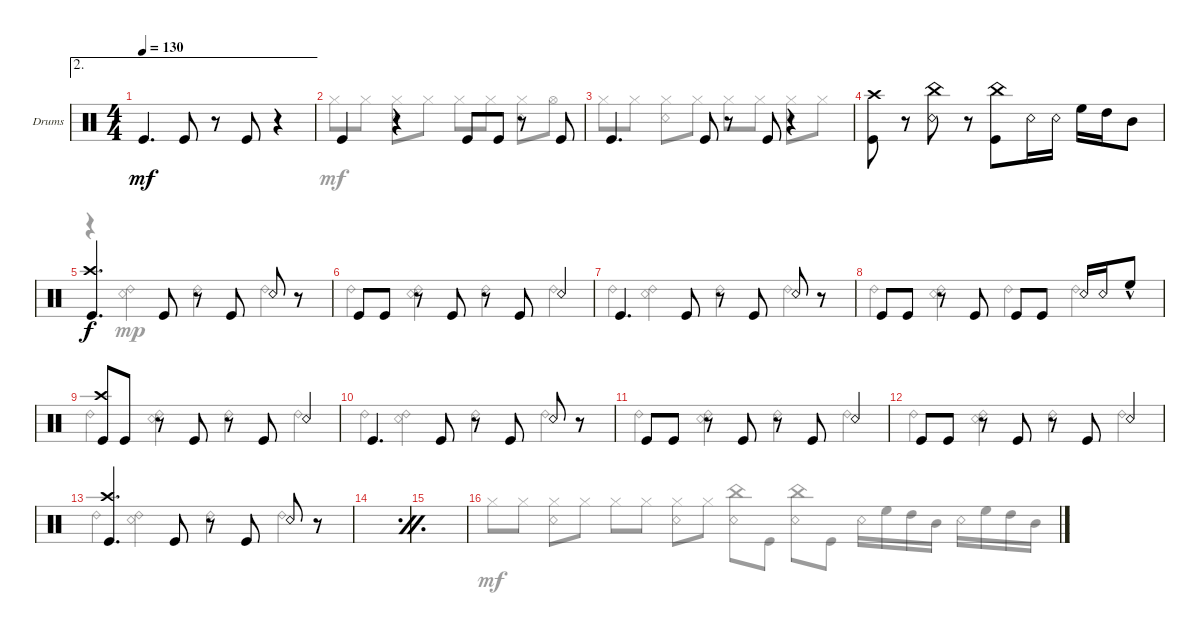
\defaultSystemsLayout 4
\bracketExtendMode groupsimilarinstruments
\firstSystemTrackNameOrientation horizontal
\otherSystemsTrackNameOrientation horizontal
\track ("Drumkit" "Drums") {instrument percussion}
\staff {score}
\articulation defaults
\voice
\ae 2
\ts (4 4)
\tempo 130
\clef neutral
\ks c "Kick (hit)".4{d dy mf} "Kick (hit)".8
r.8 "Kick (hit)".8 r.4 |
"Kick (hit)".4 r.4 "Kick (hit)".8 "Kick (hit)".8 r.8 "Kick (hit)".8 |
"Kick (hit)".4{d} "Kick (hit)".8 r.8 "Kick (hit)".8 r.4 |
("Kick (hit)" "Crash high (hit)").8 r.8 ("Snare (rim shot)" "China (hit)").8 r.8 ("Kick (hit)" "China (hit)").8 "Snare (rim shot)".16 "Snare (rim shot)".16 "High Floor Tom (hit)".16 "High Tom (hit)".16 "Mid Tom (hit)".8 |
("Kick (hit)" "Crash high (hit)").4{d dy f} "Kick (hit)".8 r.8 "Kick (hit)".8 "Snare (rim shot)".8 r.8 |
"Kick (hit)".8 "Kick (hit)".8 r.8 "Kick (hit)".8 r.8 "Kick (hit)".8 "Snare (rim shot)".4 |
"Kick (hit)".4{d} "Kick (hit)".8 r.8 "Kick (hit)".8 "Snare (rim shot)".8 r.8 |
"Kick (hit)".8 "Kick (hit)".8 r.8 "Kick (hit)".8 "Kick (hit)".8 "Kick (hit)".8 "Snare (rim shot)".16 "Snare (rim shot)".16 "High Floor Tom (hit)"{hac}.8 |
("Kick (hit)" "Crash high (hit)").8 "Kick (hit)".8 r.8 "Kick (hit)".8 r.8 "Kick (hit)".8 "Snare (rim shot)".4 |
"Kick (hit)".4{d} "Kick (hit)".8 r.8 "Kick (hit)".8 "Snare (rim shot)".8 r.8 |
"Kick (hit)".8 "Kick (hit)".8 r.8 "Kick (hit)".8 r.8 "Kick (hit)".8 "Snare (rim shot)".4 |
"Kick (hit)".8 "Kick (hit)".8 r.8 "Kick (hit)".8 r.8 "Kick (hit)".8 "Snare (rim shot)".4 |
("Kick (hit)" "Crash high (hit)").4{d} "Kick (hit)".8 r.8 "Kick (hit)".8 "Snare (rim shot)".8 r.8 |
\simile firstofdouble
|
\simile secondofdouble
|
\simile none
\voice
\clef neutral
\ottava regular
\simile none
\ks c "Hi-Hat (closed)".8{dy mf} "Hi-Hat (closed)".8
("Hi-Hat (closed)" "Snare (rim shot)").8 "Hi-Hat (closed)".8 "Hi-Hat (closed)".8 "Hi-Hat (closed)".8 ("Hi-Hat (closed)" "Snare (rim shot)").8 "Hi-Hat (closed)".8 |
"Hi-Hat (closed)".8 "Hi-Hat (closed)".8 ("Hi-Hat (closed)" "Snare (rim shot)").8 "Hi-Hat (closed)".8 "Hi-Hat (closed)".8 "Hi-Hat (closed)".8 ("Hi-Hat (closed)" "Snare (rim shot)").8 "Hi-Hat (open)".8 |
"Hi-Hat (closed)".8 "Hi-Hat (closed)".8 ("Hi-Hat (closed)" "Snare (rim shot)").8 "Hi-Hat (closed)".8 "Hi-Hat (closed)".8 "Hi-Hat (closed)".8 ("Hi-Hat (closed)" "Snare (rim shot)").8 "Hi-Hat (closed)".8 |
|
r.4 ("Ride (bell) 2" "Snare (rim shot)").4{dy mp} "Ride (bell) 2".4 "Ride (bell) 2".4 |
"Ride (bell) 2".4 ("Ride (bell) 2" "Snare (rim shot)").4 "Ride (bell) 2".4 "Ride (bell) 2".4 |
"Ride (bell) 2".4 ("Ride (bell) 2" "Snare (rim shot)").4 "Ride (bell) 2".4 "Ride (bell) 2".4 |
"Ride (bell) 2".4 ("Ride (bell) 2" "Snare (rim shot)").4 "Ride (bell) 2".4 "Ride (bell) 2".4 |
"Ride (bell) 2".4 ("Ride (bell) 2" "Snare (rim shot)").4 "Ride (bell) 2".4 "Ride (bell) 2".4 |
"Ride (bell) 2".4 ("Ride (bell) 2" "Snare (rim shot)").4 "Ride (bell) 2".4 "Ride (bell) 2".4 |
"Ride (bell) 2".4 ("Ride (bell) 2" "Snare (rim shot)").4 "Ride (bell) 2".4 "Ride (bell) 2".4 |
"Ride (bell) 2".4 ("Ride (bell) 2" "Snare (rim shot)").4 "Ride (bell) 2".4 "Ride (bell) 2".4 |
"Ride (bell) 2".4 ("Ride (bell) 2" "Snare (rim shot)").4 "Ride (bell) 2".4 "Ride (bell) 2".4 |
\simile firstofdouble
|
\simile secondofdouble
|
\simile none
("China (hit)" "Snare (rim shot)").8{dy mf} "Kick (hit)".8 ("China (hit)" "Snare (rim shot)").8 "Kick (hit)".8 "Snare (rim shot)".16 "High Floor Tom (hit)".16 "High Tom (hit)".16 "Mid Tom (hit)".16 "Snare (rim shot)".16 "High Floor Tom (hit)".16 "High Tom (hit)".16 "Mid Tom (hit)".16
